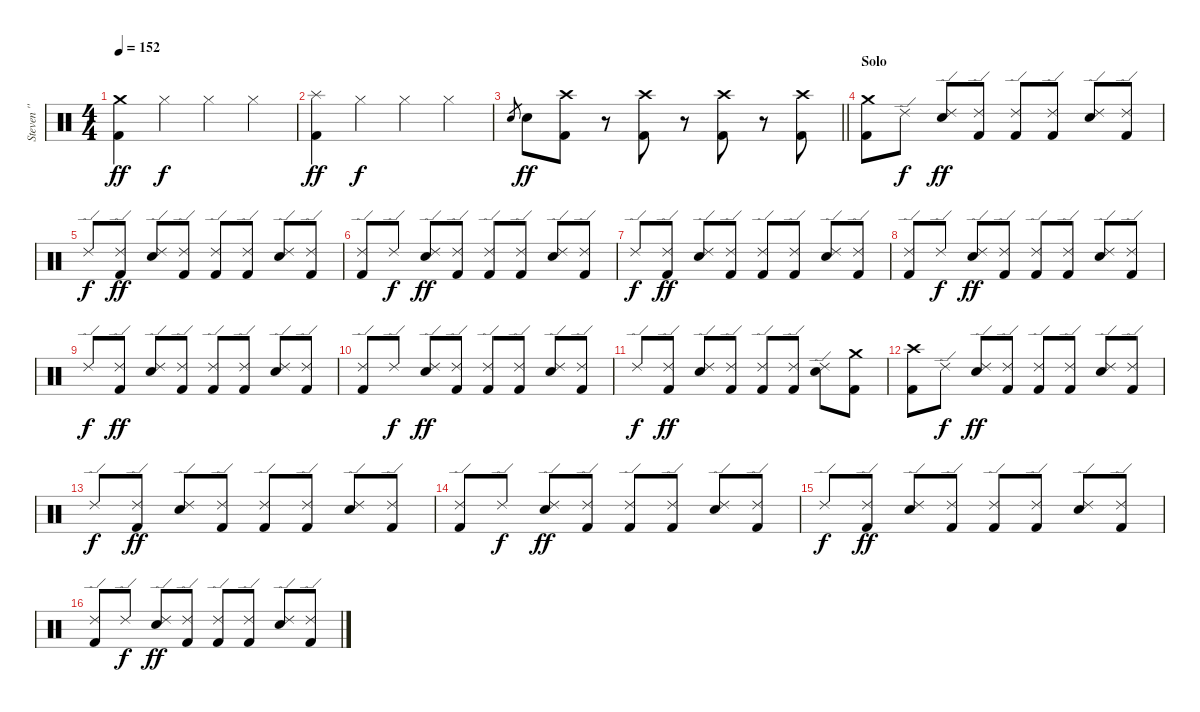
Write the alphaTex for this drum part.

\track ("Steven '' Popcorn '' Adler" "Steven '' ") {instrument percussion}
\staff {score}
\articulation defaults
\ts (4 4)
\tempo 152
\clef neutral
\ks c
("Crash medium (hit)" "Kick (hit) 2").4{dy ff} "Hi-Hat (closed)".4{dy f} "Hi-Hat (closed)".4 "Hi-Hat (closed)".4 |
("Splash (hit)" "Kick (hit) 2").4{dy ff} "Hi-Hat (closed)".4{dy f} "Hi-Hat (closed)".4 "Hi-Hat (closed)".4 |
\barLineRight lightlight "Snare (hit) 2".8{gr} "Snare (hit) 2".8{dy ff}
("Crash high (hit)" "Kick (hit) 2").8 r.8 ("Crash high (hit)" "Kick (hit) 2").8 r.8 ("Crash high (hit)" "Kick (hit) 2").8 r.8 ("Crash high (hit)" "Kick (hit) 2").8 |
\section ("" "Solo")
("Crash medium (hit)" "Kick (hit) 2").8 "Ride (edge) 2".8{dy f} ("Ride (edge) 2" "Snare (hit) 2").8{dy ff} ("Ride (edge) 2" "Kick (hit) 2").8 ("Ride (edge) 2" "Kick (hit) 2").8 ("Ride (edge) 2" "Kick (hit) 2").8 ("Ride (edge) 2" "Snare (hit) 2").8 ("Ride (edge) 2" "Kick (hit) 2").8 |
"Ride (edge) 2".8{dy f} ("Ride (edge) 2" "Kick (hit) 2").8{dy ff} ("Ride (edge) 2" "Snare (hit) 2").8 ("Ride (edge) 2" "Kick (hit) 2").8 ("Ride (edge) 2" "Kick (hit) 2").8 ("Ride (edge) 2" "Kick (hit) 2").8 ("Ride (edge) 2" "Snare (hit) 2").8 ("Ride (edge) 2" "Kick (hit) 2").8 |
("Ride (edge) 2" "Kick (hit) 2").8 "Ride (edge) 2".8{dy f} ("Ride (edge) 2" "Snare (hit) 2").8{dy ff} ("Ride (edge) 2" "Kick (hit) 2").8 ("Ride (edge) 2" "Kick (hit) 2").8 ("Ride (edge) 2" "Kick (hit) 2").8 ("Ride (edge) 2" "Snare (hit) 2").8 ("Ride (edge) 2" "Kick (hit) 2").8 |
"Ride (edge) 2".8{dy f} ("Ride (edge) 2" "Kick (hit) 2").8{dy ff} ("Ride (edge) 2" "Snare (hit) 2").8 ("Ride (edge) 2" "Kick (hit) 2").8 ("Ride (edge) 2" "Kick (hit) 2").8 ("Ride (edge) 2" "Kick (hit) 2").8 ("Ride (edge) 2" "Snare (hit) 2").8 ("Ride (edge) 2" "Kick (hit) 2").8 |
("Ride (edge) 2" "Kick (hit) 2").8 "Ride (edge) 2".8{dy f} ("Ride (edge) 2" "Snare (hit) 2").8{dy ff} ("Ride (edge) 2" "Kick (hit) 2").8 ("Ride (edge) 2" "Kick (hit) 2").8 ("Ride (edge) 2" "Kick (hit) 2").8 ("Ride (edge) 2" "Snare (hit) 2").8 ("Ride (edge) 2" "Kick (hit) 2").8 |
"Ride (edge) 2".8{dy f} ("Ride (edge) 2" "Kick (hit) 2").8{dy ff} ("Ride (edge) 2" "Snare (hit) 2").8 ("Ride (edge) 2" "Kick (hit) 2").8 ("Ride (edge) 2" "Kick (hit) 2").8 ("Ride (edge) 2" "Kick (hit) 2").8 ("Ride (edge) 2" "Snare (hit) 2").8 ("Ride (edge) 2" "Kick (hit) 2").8 |
("Ride (edge) 2" "Kick (hit) 2").8 "Ride (edge) 2".8{dy f} ("Ride (edge) 2" "Snare (hit) 2").8{dy ff} ("Ride (edge) 2" "Kick (hit) 2").8 ("Ride (edge) 2" "Kick (hit) 2").8 ("Ride (edge) 2" "Kick (hit) 2").8 ("Ride (edge) 2" "Snare (hit) 2").8 ("Ride (edge) 2" "Kick (hit) 2").8 |
"Ride (edge) 2".8{dy f} ("Ride (edge) 2" "Kick (hit) 2").8{dy ff} ("Ride (edge) 2" "Snare (hit) 2").8 ("Ride (edge) 2" "Kick (hit) 2").8 ("Ride (edge) 2" "Kick (hit) 2").8 ("Ride (edge) 2" "Kick (hit) 2").8 ("Ride (edge) 2" "Snare (hit) 2").8 ("Crash medium (hit)" "Kick (hit) 2").8 |
("Crash high (hit)" "Kick (hit) 2").8 "Ride (edge) 2".8{dy f} ("Ride (edge) 2" "Snare (hit) 2").8{dy ff} ("Ride (edge) 2" "Kick (hit) 2").8 ("Ride (edge) 2" "Kick (hit) 2").8 ("Ride (edge) 2" "Kick (hit) 2").8 ("Ride (edge) 2" "Snare (hit) 2").8 ("Ride (edge) 2" "Kick (hit) 2").8 |
"Ride (edge) 2".8{dy f} ("Ride (edge) 2" "Kick (hit) 2").8{dy ff} ("Ride (edge) 2" "Snare (hit) 2").8 ("Ride (edge) 2" "Kick (hit) 2").8 ("Ride (edge) 2" "Kick (hit) 2").8 ("Ride (edge) 2" "Kick (hit) 2").8 ("Ride (edge) 2" "Snare (hit) 2").8 ("Ride (edge) 2" "Kick (hit) 2").8 |
("Ride (edge) 2" "Kick (hit) 2").8 "Ride (edge) 2".8{dy f} ("Ride (edge) 2" "Snare (hit) 2").8{dy ff} ("Ride (edge) 2" "Kick (hit) 2").8 ("Ride (edge) 2" "Kick (hit) 2").8 ("Ride (edge) 2" "Kick (hit) 2").8 ("Ride (edge) 2" "Snare (hit) 2").8 ("Ride (edge) 2" "Kick (hit) 2").8 |
"Ride (edge) 2".8{dy f} ("Ride (edge) 2" "Kick (hit) 2").8{dy ff} ("Ride (edge) 2" "Snare (hit) 2").8 ("Ride (edge) 2" "Kick (hit) 2").8 ("Ride (edge) 2" "Kick (hit) 2").8 ("Ride (edge) 2" "Kick (hit) 2").8 ("Ride (edge) 2" "Snare (hit) 2").8 ("Ride (edge) 2" "Kick (hit) 2").8 |
("Ride (edge) 2" "Kick (hit) 2").8 "Ride (edge) 2".8{dy f} ("Ride (edge) 2" "Snare (hit) 2").8{dy ff} ("Ride (edge) 2" "Kick (hit) 2").8 ("Ride (edge) 2" "Kick (hit) 2").8 ("Ride (edge) 2" "Kick (hit) 2").8 ("Ride (edge) 2" "Snare (hit) 2").8 ("Ride (edge) 2" "Kick (hit) 2").8
